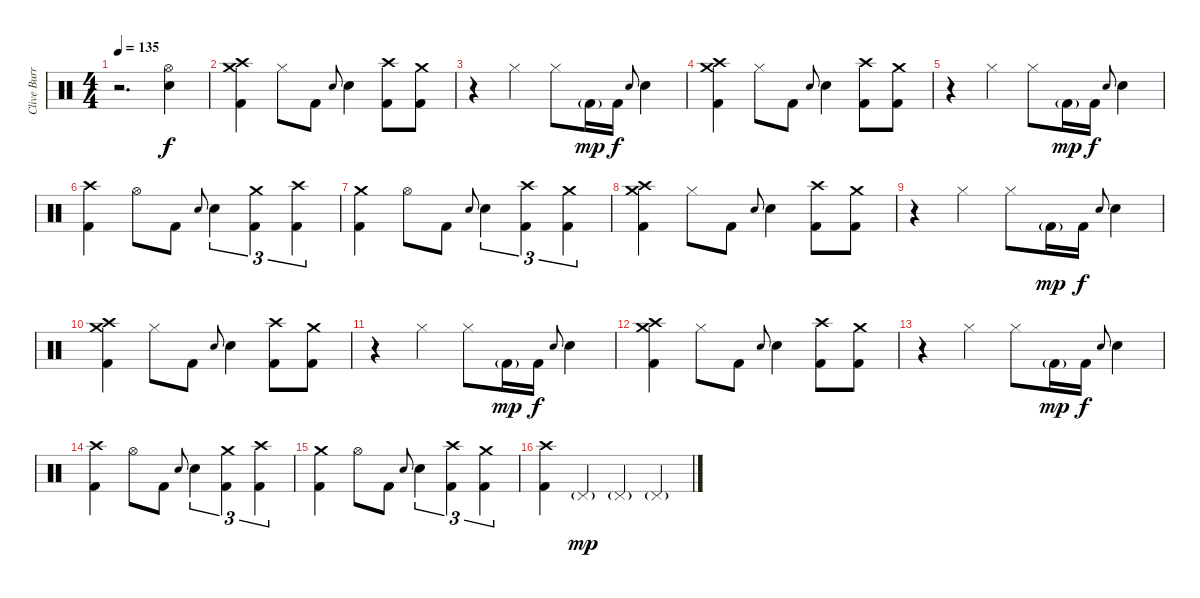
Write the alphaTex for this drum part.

\track ("Clive Burr" "Clive Burr") {instrument percussion}
\staff {score}
\articulation defaults
\ts (4 4)
\tempo 135
\clef neutral
\ks c
r.2{d dy f} ("Hi-Hat (open)" "Snare (hit) 2").4 |
("Crash high (hit)" "Crash medium (hit)" "Kick (hit) 2").4 "Hi-Hat (closed)".8 "Kick (hit) 2".8 "Snare (hit) 2".8{gr onbeat} "Snare (hit) 2".4 ("Crash high (hit)" "Kick (hit) 2").8 ("Crash medium (hit)" "Kick (hit) 2").8 |
r.4 "Hi-Hat (closed)".4 "Hi-Hat (closed)".8 "Kick (hit) 2"{g}.16{dy mp} "Kick (hit) 2".16{dy f} "Snare (hit) 2".8{gr onbeat} "Snare (hit) 2".4 |
("Crash high (hit)" "Crash medium (hit)" "Kick (hit) 2").4 "Hi-Hat (closed)".8 "Kick (hit) 2".8 "Snare (hit) 2".8{gr onbeat} "Snare (hit) 2".4 ("Crash high (hit)" "Kick (hit) 2").8 ("Crash medium (hit)" "Kick (hit) 2").8 |
r.4 "Hi-Hat (closed)".4 "Hi-Hat (closed)".8 "Kick (hit) 2"{g}.16{dy mp} "Kick (hit) 2".16{dy f} "Snare (hit) 2".8{gr onbeat} "Snare (hit) 2".4 |
("Crash high (hit)" "Kick (hit) 2").4 "Hi-Hat (open)".8 "Kick (hit) 2".8 "Snare (hit) 2".8{gr onbeat} "Snare (hit) 2".4{tu (3 2)} ("Crash medium (hit)" "Kick (hit) 2").4{tu (3 2)} ("Crash high (hit)" "Kick (hit) 2").4{tu (3 2)} |
("Crash medium (hit)" "Kick (hit) 2").4 "Hi-Hat (open)".8 "Kick (hit) 2".8 "Snare (hit) 2".8{gr onbeat} "Snare (hit) 2".4{tu (3 2)} ("Crash high (hit)" "Kick (hit) 2").4{tu (3 2)} ("Crash medium (hit)" "Kick (hit) 2").4{tu (3 2)} |
("Crash high (hit)" "Crash medium (hit)" "Kick (hit) 2").4 "Hi-Hat (closed)".8 "Kick (hit) 2".8 "Snare (hit) 2".8{gr onbeat} "Snare (hit) 2".4 ("Crash high (hit)" "Kick (hit) 2").8 ("Crash medium (hit)" "Kick (hit) 2").8 |
r.4 "Hi-Hat (closed)".4 "Hi-Hat (closed)".8 "Kick (hit) 2"{g}.16{dy mp} "Kick (hit) 2".16{dy f} "Snare (hit) 2".8{gr onbeat} "Snare (hit) 2".4 |
("Crash high (hit)" "Crash medium (hit)" "Kick (hit) 2").4 "Hi-Hat (closed)".8 "Kick (hit) 2".8 "Snare (hit) 2".8{gr onbeat} "Snare (hit) 2".4 ("Crash high (hit)" "Kick (hit) 2").8 ("Crash medium (hit)" "Kick (hit) 2").8 |
r.4 "Hi-Hat (closed)".4 "Hi-Hat (closed)".8 "Kick (hit) 2"{g}.16{dy mp} "Kick (hit) 2".16{dy f} "Snare (hit) 2".8{gr onbeat} "Snare (hit) 2".4 |
("Crash high (hit)" "Crash medium (hit)" "Kick (hit) 2").4 "Hi-Hat (closed)".8 "Kick (hit) 2".8 "Snare (hit) 2".8{gr onbeat} "Snare (hit) 2".4 ("Crash high (hit)" "Kick (hit) 2").8 ("Crash medium (hit)" "Kick (hit) 2").8 |
r.4 "Hi-Hat (closed)".4 "Hi-Hat (closed)".8 "Kick (hit) 2"{g}.16{dy mp} "Kick (hit) 2".16{dy f} "Snare (hit) 2".8{gr onbeat} "Snare (hit) 2".4 |
("Crash high (hit)" "Kick (hit) 2").4 "Hi-Hat (open)".8 "Kick (hit) 2".8 "Snare (hit) 2".8{gr onbeat} "Snare (hit) 2".4{tu (3 2)} ("Crash medium (hit)" "Kick (hit) 2").4{tu (3 2)} ("Crash high (hit)" "Kick (hit) 2").4{tu (3 2)} |
("Crash medium (hit)" "Kick (hit) 2").4 "Hi-Hat (open)".8 "Kick (hit) 2".8 "Snare (hit) 2".8{gr onbeat} "Snare (hit) 2".4{tu (3 2)} ("Crash high (hit)" "Kick (hit) 2").4{tu (3 2)} ("Crash medium (hit)" "Kick (hit) 2").4{tu (3 2)} |
("Crash high (hit)" "Kick (hit) 2").4 "Pedal Hi-Hat (hit)"{g}.4{dy mp} "Pedal Hi-Hat (hit)"{g}.4 "Pedal Hi-Hat (hit)"{g}.4
